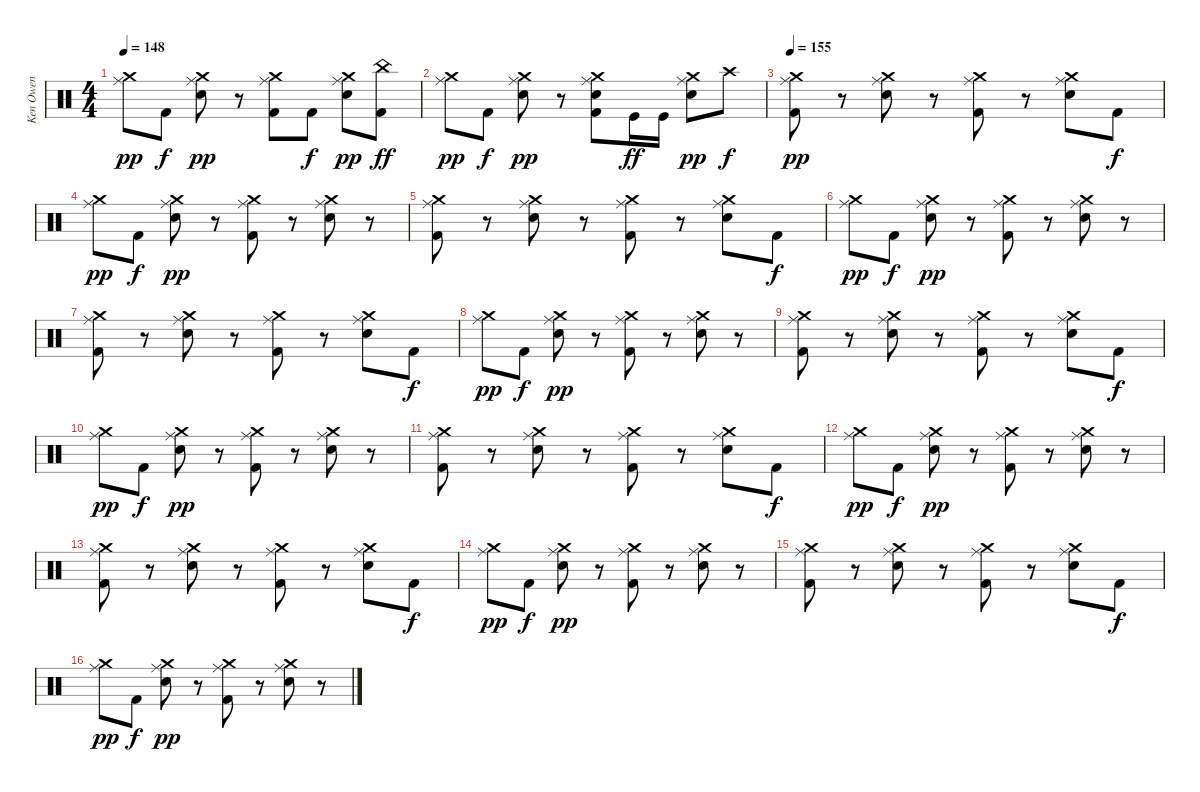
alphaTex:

\track ("Ken Owen" "Ken Owen") {instrument percussion}
\staff {score}
\articulation defaults
\ts (4 4)
\tempo 148
\clef neutral
\ks c
("Crash medium (hit)" "Ride (middle)").8{dy pp} "Kick (hit) 2".8{dy f} ("Crash medium (hit)" "Ride (middle)" "Electric Snare (hit)").8{dy pp} r.8 ("Crash medium (hit)" "Ride (middle)" "Kick (hit) 2").8 "Kick (hit) 2".8{dy f} ("Crash medium (hit)" "Ride (middle)" "Electric Snare (hit)").8{dy pp} ("Kick (hit) 2" "China (hit)").8{dy ff} |
("Crash medium (hit)" "Ride (middle)").8{dy pp} "Kick (hit) 2".8{dy f} ("Crash medium (hit)" "Ride (middle)" "Electric Snare (hit)").8{dy pp} r.8 ("Crash medium (hit)" "Ride (middle)" "Kick (hit) 2" "Electric Snare (hit)").8 "Kick (hit)".16{dy ff} "Kick (hit)".16 ("Crash medium (hit)" "Ride (middle)" "Electric Snare (hit)").8{dy pp} "Crash high (hit)".8{dy f} |
\tempo 155
("Crash medium (hit)" "Ride (middle)" "Kick (hit) 2").8{dy pp} r.8 ("Crash medium (hit)" "Ride (middle)" "Electric Snare (hit)").8 r.8 ("Crash medium (hit)" "Ride (middle)" "Kick (hit) 2").8 r.8 ("Crash medium (hit)" "Ride (middle)" "Electric Snare (hit)").8 "Kick (hit) 2".8{dy f} |
("Crash medium (hit)" "Ride (middle)").8{dy pp} "Kick (hit) 2".8{dy f} ("Crash medium (hit)" "Ride (middle)" "Electric Snare (hit)").8{dy pp} r.8 ("Crash medium (hit)" "Ride (middle)" "Kick (hit) 2").8 r.8 ("Crash medium (hit)" "Ride (middle)" "Electric Snare (hit)").8 r.8 |
("Crash medium (hit)" "Ride (middle)" "Kick (hit) 2").8 r.8 ("Crash medium (hit)" "Ride (middle)" "Electric Snare (hit)").8 r.8 ("Crash medium (hit)" "Ride (middle)" "Kick (hit) 2").8 r.8 ("Crash medium (hit)" "Ride (middle)" "Electric Snare (hit)").8 "Kick (hit) 2".8{dy f} |
("Crash medium (hit)" "Ride (middle)").8{dy pp} "Kick (hit) 2".8{dy f} ("Crash medium (hit)" "Ride (middle)" "Electric Snare (hit)").8{dy pp} r.8 ("Crash medium (hit)" "Ride (middle)" "Kick (hit) 2").8 r.8 ("Crash medium (hit)" "Ride (middle)" "Electric Snare (hit)").8 r.8 |
("Crash medium (hit)" "Ride (middle)" "Kick (hit) 2").8 r.8 ("Crash medium (hit)" "Ride (middle)" "Electric Snare (hit)").8 r.8 ("Crash medium (hit)" "Ride (middle)" "Kick (hit) 2").8 r.8 ("Crash medium (hit)" "Ride (middle)" "Electric Snare (hit)").8 "Kick (hit) 2".8{dy f} |
("Crash medium (hit)" "Ride (middle)").8{dy pp} "Kick (hit) 2".8{dy f} ("Crash medium (hit)" "Ride (middle)" "Electric Snare (hit)").8{dy pp} r.8 ("Crash medium (hit)" "Ride (middle)" "Kick (hit) 2").8 r.8 ("Crash medium (hit)" "Ride (middle)" "Electric Snare (hit)").8 r.8 |
("Crash medium (hit)" "Ride (middle)" "Kick (hit) 2").8 r.8 ("Crash medium (hit)" "Ride (middle)" "Electric Snare (hit)").8 r.8 ("Crash medium (hit)" "Ride (middle)" "Kick (hit) 2").8 r.8 ("Crash medium (hit)" "Ride (middle)" "Electric Snare (hit)").8 "Kick (hit) 2".8{dy f} |
("Crash medium (hit)" "Ride (middle)").8{dy pp} "Kick (hit) 2".8{dy f} ("Crash medium (hit)" "Ride (middle)" "Electric Snare (hit)").8{dy pp} r.8 ("Crash medium (hit)" "Ride (middle)" "Kick (hit) 2").8 r.8 ("Crash medium (hit)" "Ride (middle)" "Electric Snare (hit)").8 r.8 |
("Crash medium (hit)" "Ride (middle)" "Kick (hit) 2").8 r.8 ("Crash medium (hit)" "Ride (middle)" "Electric Snare (hit)").8 r.8 ("Crash medium (hit)" "Ride (middle)" "Kick (hit) 2").8 r.8 ("Crash medium (hit)" "Ride (middle)" "Electric Snare (hit)").8 "Kick (hit) 2".8{dy f} |
("Crash medium (hit)" "Ride (middle)").8{dy pp} "Kick (hit) 2".8{dy f} ("Crash medium (hit)" "Ride (middle)" "Electric Snare (hit)").8{dy pp} r.8 ("Crash medium (hit)" "Ride (middle)" "Kick (hit) 2").8 r.8 ("Crash medium (hit)" "Ride (middle)" "Electric Snare (hit)").8 r.8 |
("Crash medium (hit)" "Ride (middle)" "Kick (hit) 2").8 r.8 ("Crash medium (hit)" "Ride (middle)" "Electric Snare (hit)").8 r.8 ("Crash medium (hit)" "Ride (middle)" "Kick (hit) 2").8 r.8 ("Crash medium (hit)" "Ride (middle)" "Electric Snare (hit)").8 "Kick (hit) 2".8{dy f} |
("Crash medium (hit)" "Ride (middle)").8{dy pp} "Kick (hit) 2".8{dy f} ("Crash medium (hit)" "Ride (middle)" "Electric Snare (hit)").8{dy pp} r.8 ("Crash medium (hit)" "Ride (middle)" "Kick (hit) 2").8 r.8 ("Crash medium (hit)" "Ride (middle)" "Electric Snare (hit)").8 r.8 |
("Crash medium (hit)" "Ride (middle)" "Kick (hit) 2").8 r.8 ("Crash medium (hit)" "Ride (middle)" "Electric Snare (hit)").8 r.8 ("Crash medium (hit)" "Ride (middle)" "Kick (hit) 2").8 r.8 ("Crash medium (hit)" "Ride (middle)" "Electric Snare (hit)").8 "Kick (hit) 2".8{dy f} |
("Crash medium (hit)" "Ride (middle)").8{dy pp} "Kick (hit) 2".8{dy f} ("Crash medium (hit)" "Ride (middle)" "Electric Snare (hit)").8{dy pp} r.8 ("Crash medium (hit)" "Ride (middle)" "Kick (hit) 2").8 r.8 ("Crash medium (hit)" "Ride (middle)" "Electric Snare (hit)").8 r.8
